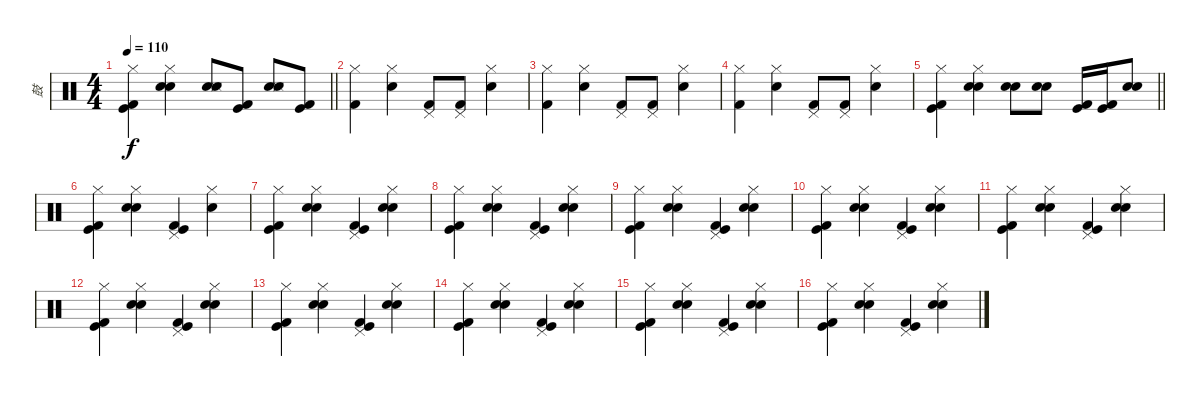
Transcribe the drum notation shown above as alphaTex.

\track ("鼓" "鼓") {instrument percussion}
\staff {score}
\articulation defaults
\ts (4 4)
\tempo 110
\clef neutral
\barLineRight lightlight
\ks c
("Kick (hit) 2" "Kick (hit)" "Hi-Hat (closed)").4{dy f} ("Electric Snare (hit)" "Snare (hit) 2" "Hi-Hat (closed)").4 ("Snare (hit) 2" "Electric Snare (hit)" "Snare (side stick) 3").8 ("Kick (hit) 2" "Kick (hit)").8 ("Snare (hit) 2" "Electric Snare (hit)" "Snare (side stick) 3").8 ("Kick (hit) 2" "Kick (hit)").8 |
("Kick (hit) 2" "Hi-Hat (closed)").4 ("Snare (hit) 2" "Hi-Hat (closed)").4 ("Kick (hit) 2" "Pedal Hi-Hat (hit)").8 ("Kick (hit) 2" "Pedal Hi-Hat (hit)").8 ("Snare (hit) 2" "Hi-Hat (closed)").4 |
("Kick (hit) 2" "Hi-Hat (closed)").4 ("Snare (hit) 2" "Hi-Hat (closed)").4 ("Kick (hit) 2" "Pedal Hi-Hat (hit)").8 ("Kick (hit) 2" "Pedal Hi-Hat (hit)").8 ("Snare (hit) 2" "Hi-Hat (closed)").4 |
("Kick (hit) 2" "Hi-Hat (closed)").4 ("Snare (hit) 2" "Hi-Hat (closed)").4 ("Kick (hit) 2" "Pedal Hi-Hat (hit)").8 ("Kick (hit) 2" "Pedal Hi-Hat (hit)").8 ("Snare (hit) 2" "Hi-Hat (closed)").4 |
\barLineRight lightlight
("Kick (hit) 2" "Kick (hit)" "Hi-Hat (closed)").4 ("Electric Snare (hit)" "Snare (hit) 2" "Hi-Hat (closed)").4 ("Electric Snare (hit)" "Snare (hit) 2").8 ("Electric Snare (hit)" "Snare (hit) 2").8 ("Kick (hit)" "Kick (hit) 2").16 ("Kick (hit)" "Kick (hit) 2").16 ("Electric Snare (hit)" "Snare (hit) 2").8 |
("Kick (hit) 2" "Kick (hit)" "Hi-Hat (closed)").4 ("Electric Snare (hit)" "Snare (hit) 2" "Hi-Hat (closed)").4 ("Kick (hit) 2" "Kick (hit)" "Pedal Hi-Hat (hit)").4 ("Snare (hit) 2" "Hi-Hat (closed)").4 |
("Kick (hit) 2" "Kick (hit)" "Hi-Hat (closed)").4 ("Electric Snare (hit)" "Snare (hit) 2" "Hi-Hat (closed)").4 ("Kick (hit) 2" "Kick (hit)" "Pedal Hi-Hat (hit)").4 ("Electric Snare (hit)" "Snare (hit) 2" "Hi-Hat (closed)").4 |
("Kick (hit) 2" "Kick (hit)" "Hi-Hat (closed)").4 ("Electric Snare (hit)" "Snare (hit) 2" "Hi-Hat (closed)").4 ("Kick (hit) 2" "Kick (hit)" "Pedal Hi-Hat (hit)").4 ("Electric Snare (hit)" "Snare (hit) 2" "Hi-Hat (closed)").4 |
("Kick (hit) 2" "Kick (hit)" "Hi-Hat (closed)").4 ("Electric Snare (hit)" "Snare (hit) 2" "Hi-Hat (closed)").4 ("Kick (hit) 2" "Kick (hit)" "Pedal Hi-Hat (hit)").4 ("Electric Snare (hit)" "Snare (hit) 2" "Hi-Hat (closed)").4 |
("Kick (hit) 2" "Kick (hit)" "Hi-Hat (closed)").4 ("Electric Snare (hit)" "Snare (hit) 2" "Hi-Hat (closed)").4 ("Kick (hit) 2" "Kick (hit)" "Pedal Hi-Hat (hit)").4 ("Electric Snare (hit)" "Snare (hit) 2" "Hi-Hat (closed)").4 |
("Kick (hit) 2" "Kick (hit)" "Hi-Hat (closed)").4 ("Electric Snare (hit)" "Snare (hit) 2" "Hi-Hat (closed)").4 ("Kick (hit) 2" "Kick (hit)" "Pedal Hi-Hat (hit)").4 ("Electric Snare (hit)" "Snare (hit) 2" "Hi-Hat (closed)").4 |
("Kick (hit) 2" "Kick (hit)" "Hi-Hat (closed)").4 ("Electric Snare (hit)" "Snare (hit) 2" "Hi-Hat (closed)").4 ("Kick (hit) 2" "Kick (hit)" "Pedal Hi-Hat (hit)").4 ("Electric Snare (hit)" "Snare (hit) 2" "Hi-Hat (closed)").4 |
("Kick (hit) 2" "Kick (hit)" "Hi-Hat (closed)").4 ("Electric Snare (hit)" "Snare (hit) 2" "Hi-Hat (closed)").4 ("Kick (hit) 2" "Kick (hit)" "Pedal Hi-Hat (hit)").4 ("Electric Snare (hit)" "Snare (hit) 2" "Hi-Hat (closed)").4 |
("Kick (hit) 2" "Kick (hit)" "Hi-Hat (closed)").4 ("Electric Snare (hit)" "Snare (hit) 2" "Hi-Hat (closed)").4 ("Kick (hit) 2" "Kick (hit)" "Pedal Hi-Hat (hit)").4 ("Electric Snare (hit)" "Snare (hit) 2" "Hi-Hat (closed)").4 |
("Kick (hit) 2" "Kick (hit)" "Hi-Hat (closed)").4 ("Electric Snare (hit)" "Snare (hit) 2" "Hi-Hat (closed)").4 ("Kick (hit) 2" "Kick (hit)" "Pedal Hi-Hat (hit)").4 ("Electric Snare (hit)" "Snare (hit) 2" "Hi-Hat (closed)").4 |
("Kick (hit) 2" "Kick (hit)" "Hi-Hat (closed)").4 ("Electric Snare (hit)" "Snare (hit) 2" "Hi-Hat (closed)").4 ("Kick (hit) 2" "Kick (hit)" "Pedal Hi-Hat (hit)").4 ("Electric Snare (hit)" "Snare (hit) 2" "Hi-Hat (closed)").4
